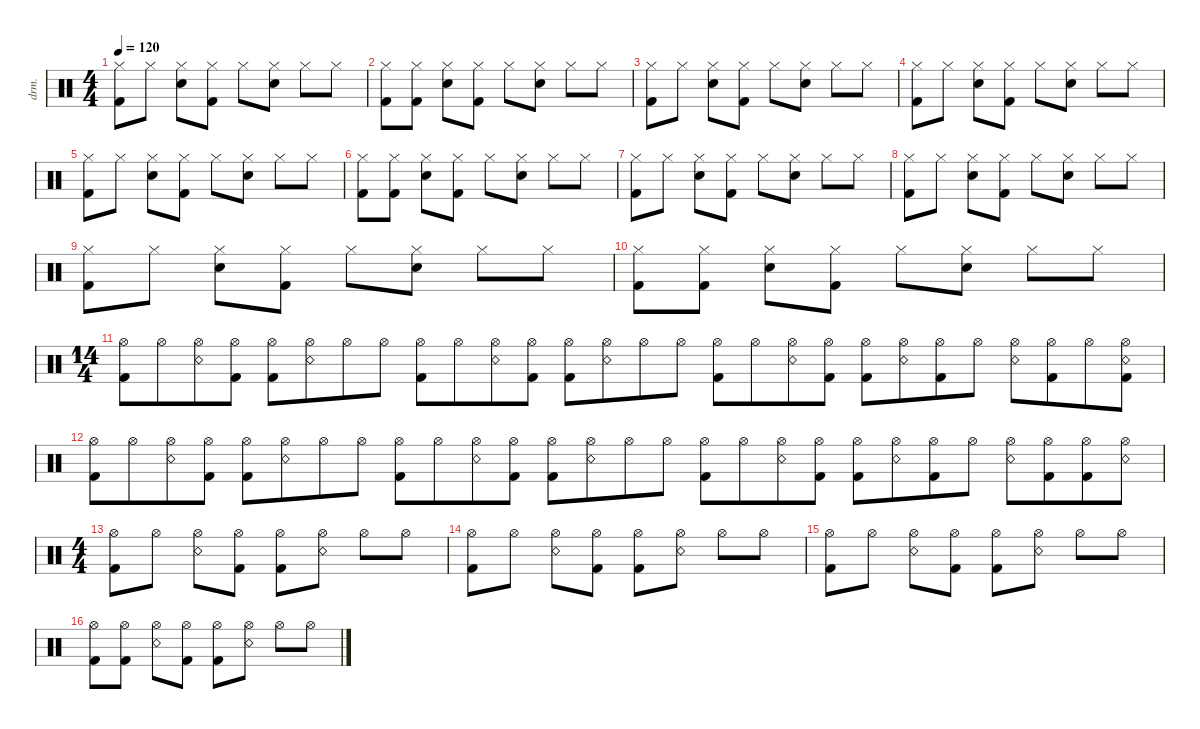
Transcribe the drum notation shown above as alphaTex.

\defaultSystemsLayout 4
\hideDynamics
\bracketExtendMode nobrackets
\otherSystemsTrackNameOrientation horizontal
\track ("Drumkit" "drm.") {instrument percussion}
\staff {score}
\articulation defaults
\ts (4 4)
\tempo 120
\clef neutral
\ks c
("Hi-Hat (closed)" "Kick (hit) 2").8{dy mf beam Down} "Hi-Hat (closed)".8{beam Down} ("Hi-Hat (closed)" "Snare (hit) 2").8{beam Down} ("Hi-Hat (closed)" "Kick (hit) 2").8{beam Down} "Hi-Hat (closed)".8{beam Down} ("Hi-Hat (closed)" "Snare (hit) 2").8{beam Down} "Hi-Hat (closed)".8{beam Down} "Hi-Hat (closed)".8{beam Down} |
("Hi-Hat (closed)" "Kick (hit) 2").8{beam Down} ("Hi-Hat (closed)" "Kick (hit) 2").8{beam Down} ("Hi-Hat (closed)" "Snare (hit) 2").8{beam Down} ("Hi-Hat (closed)" "Kick (hit) 2").8{beam Down} "Hi-Hat (closed)".8{beam Down} ("Hi-Hat (closed)" "Snare (hit) 2").8{beam Down} "Hi-Hat (closed)".8{beam Down} "Hi-Hat (closed)".8{beam Down} |
("Hi-Hat (closed)" "Kick (hit) 2").8{beam Down} "Hi-Hat (closed)".8{beam Down} ("Hi-Hat (closed)" "Snare (hit) 2").8{beam Down} ("Hi-Hat (closed)" "Kick (hit) 2").8{beam Down} "Hi-Hat (closed)".8{beam Down} ("Hi-Hat (closed)" "Snare (hit) 2").8{beam Down} "Hi-Hat (closed)".8{beam Down} "Hi-Hat (closed)".8{beam Down} |
("Hi-Hat (closed)" "Kick (hit) 2").8{beam Down} "Hi-Hat (closed)".8{beam Down} ("Hi-Hat (closed)" "Snare (hit) 2").8{beam Down} ("Hi-Hat (closed)" "Kick (hit) 2").8{beam Down} "Hi-Hat (closed)".8{beam Down} ("Hi-Hat (closed)" "Snare (hit) 2").8{beam Down} "Hi-Hat (closed)".8{beam Down} "Hi-Hat (closed)".8{beam Down} |
("Hi-Hat (closed)" "Kick (hit) 2").8{beam Down} "Hi-Hat (closed)".8{beam Down} ("Hi-Hat (closed)" "Snare (hit) 2").8{beam Down} ("Hi-Hat (closed)" "Kick (hit) 2").8{beam Down} "Hi-Hat (closed)".8{beam Down} ("Hi-Hat (closed)" "Snare (hit) 2").8{beam Down} "Hi-Hat (closed)".8{beam Down} "Hi-Hat (closed)".8{beam Down} |
("Hi-Hat (closed)" "Kick (hit) 2").8{beam Down} ("Hi-Hat (closed)" "Kick (hit) 2").8{beam Down} ("Hi-Hat (closed)" "Snare (hit) 2").8{beam Down} ("Hi-Hat (closed)" "Kick (hit) 2").8{beam Down} "Hi-Hat (closed)".8{beam Down} ("Hi-Hat (closed)" "Snare (hit) 2").8{beam Down} "Hi-Hat (closed)".8{beam Down} "Hi-Hat (closed)".8{beam Down} |
("Hi-Hat (closed)" "Kick (hit) 2").8{beam Down} "Hi-Hat (closed)".8{beam Down} ("Hi-Hat (closed)" "Snare (hit) 2").8{beam Down} ("Hi-Hat (closed)" "Kick (hit) 2").8{beam Down} "Hi-Hat (closed)".8{beam Down} ("Hi-Hat (closed)" "Snare (hit) 2").8{beam Down} "Hi-Hat (closed)".8{beam Down} "Hi-Hat (closed)".8{beam Down} |
("Hi-Hat (closed)" "Kick (hit) 2").8{beam Down} "Hi-Hat (closed)".8{beam Down} ("Hi-Hat (closed)" "Snare (hit) 2").8{beam Down} ("Hi-Hat (closed)" "Kick (hit) 2").8{beam Down} "Hi-Hat (closed)".8{beam Down} ("Hi-Hat (closed)" "Snare (hit) 2").8{beam Down} "Hi-Hat (closed)".8{beam Down} "Hi-Hat (closed)".8{beam Down} |
("Hi-Hat (closed)" "Kick (hit) 2").8{beam Down} "Hi-Hat (closed)".8{beam Down} ("Hi-Hat (closed)" "Snare (hit) 2").8{beam Down} ("Hi-Hat (closed)" "Kick (hit) 2").8{beam Down} "Hi-Hat (closed)".8{beam Down} ("Hi-Hat (closed)" "Snare (hit) 2").8{beam Down} "Hi-Hat (closed)".8{beam Down} "Hi-Hat (closed)".8{beam Down} |
("Hi-Hat (closed)" "Kick (hit) 2").8{beam Down} ("Hi-Hat (closed)" "Kick (hit) 2").8{beam Down} ("Hi-Hat (closed)" "Snare (hit) 2").8{beam Down} ("Hi-Hat (closed)" "Kick (hit) 2").8{beam Down} "Hi-Hat (closed)".8{beam Down} ("Hi-Hat (closed)" "Snare (hit) 2").8{beam Down} "Hi-Hat (closed)".8{beam Down} "Hi-Hat (closed)".8{beam Down} |
\ts (14 4)
\beaming (8 4 4 4 4 4 4 4)
("Kick (hit) 2" "Hi-Hat (open)").8{beam Down} "Hi-Hat (open)".8{beam Down} ("Hi-Hat (open)" "Snare (rim shot)").8{beam Down} ("Hi-Hat (open)" "Kick (hit) 2").8{beam Down} ("Hi-Hat (open)" "Kick (hit) 2").8{beam Down} ("Hi-Hat (open)" "Snare (rim shot)").8{beam Down} "Hi-Hat (open)".8{beam Down} "Hi-Hat (open)".8{beam Down} ("Kick (hit) 2" "Hi-Hat (open)").8{beam Down} "Hi-Hat (open)".8{beam Down} ("Hi-Hat (open)" "Snare (rim shot)").8{beam Down} ("Hi-Hat (open)" "Kick (hit) 2").8{beam Down} ("Hi-Hat (open)" "Kick (hit) 2").8{beam Down} ("Hi-Hat (open)" "Snare (rim shot)").8{beam Down} "Hi-Hat (open)".8{beam Down} "Hi-Hat (open)".8{beam Down} ("Kick (hit) 2" "Hi-Hat (open)").8{beam Down} "Hi-Hat (open)".8{beam Down} ("Hi-Hat (open)" "Snare (rim shot)").8{beam Down} ("Hi-Hat (open)" "Kick (hit) 2").8{beam Down} ("Hi-Hat (open)" "Kick (hit) 2").8{beam Down} ("Hi-Hat (open)" "Snare (rim shot)").8{beam Down} ("Hi-Hat (open)" "Kick (hit) 2").8{beam Down} "Hi-Hat (open)".8{beam Down} ("Hi-Hat (open)" "Snare (rim shot)").8{beam Down} ("Hi-Hat (open)" "Kick (hit) 2").8{beam Down} "Hi-Hat (open)".8{beam Down} ("Hi-Hat (open)" "Kick (hit) 2" "Snare (rim shot)").8{beam Down} |
("Kick (hit) 2" "Hi-Hat (open)").8{beam Down} "Hi-Hat (open)".8{beam Down} ("Hi-Hat (open)" "Snare (rim shot)").8{beam Down} ("Hi-Hat (open)" "Kick (hit) 2").8{beam Down} ("Hi-Hat (open)" "Kick (hit) 2").8{beam Down} ("Hi-Hat (open)" "Snare (rim shot)").8{beam Down} "Hi-Hat (open)".8{beam Down} "Hi-Hat (open)".8{beam Down} ("Kick (hit) 2" "Hi-Hat (open)").8{beam Down} "Hi-Hat (open)".8{beam Down} ("Hi-Hat (open)" "Snare (rim shot)").8{beam Down} ("Hi-Hat (open)" "Kick (hit) 2").8{beam Down} ("Hi-Hat (open)" "Kick (hit) 2").8{beam Down} ("Hi-Hat (open)" "Snare (rim shot)").8{beam Down} "Hi-Hat (open)".8{beam Down} "Hi-Hat (open)".8{beam Down} ("Kick (hit) 2" "Hi-Hat (open)").8{beam Down} "Hi-Hat (open)".8{beam Down} ("Hi-Hat (open)" "Snare (rim shot)").8{beam Down} ("Hi-Hat (open)" "Kick (hit) 2").8{beam Down} ("Hi-Hat (open)" "Kick (hit) 2").8{beam Down} ("Hi-Hat (open)" "Snare (rim shot)").8{beam Down} ("Hi-Hat (open)" "Kick (hit) 2").8{beam Down} "Hi-Hat (open)".8{beam Down} ("Hi-Hat (open)" "Snare (rim shot)").8{beam Down} ("Hi-Hat (open)" "Kick (hit) 2").8{beam Down} ("Hi-Hat (open)" "Kick (hit) 2").8{beam Down} ("Hi-Hat (open)" "Snare (rim shot)").8{beam Down} |
\ts (4 4)
\beaming (8 2 2 2 2)
("Kick (hit) 2" "Hi-Hat (open)").8{beam Down} "Hi-Hat (open)".8{beam Down} ("Hi-Hat (open)" "Snare (rim shot)").8{beam Down} ("Hi-Hat (open)" "Kick (hit) 2").8{beam Down} ("Hi-Hat (open)" "Kick (hit) 2").8{beam Down} ("Hi-Hat (open)" "Snare (rim shot)").8{beam Down} "Hi-Hat (open)".8{beam Down} "Hi-Hat (open)".8{beam Down} |
("Kick (hit) 2" "Hi-Hat (open)").8{beam Down} "Hi-Hat (open)".8{beam Down} ("Hi-Hat (open)" "Snare (rim shot)").8{beam Down} ("Hi-Hat (open)" "Kick (hit) 2").8{beam Down} ("Hi-Hat (open)" "Kick (hit) 2").8{beam Down} ("Hi-Hat (open)" "Snare (rim shot)").8{beam Down} "Hi-Hat (open)".8{beam Down} "Hi-Hat (open)".8{beam Down} |
("Kick (hit) 2" "Hi-Hat (open)").8{beam Down} "Hi-Hat (open)".8{beam Down} ("Hi-Hat (open)" "Snare (rim shot)").8{beam Down} ("Hi-Hat (open)" "Kick (hit) 2").8{beam Down} ("Hi-Hat (open)" "Kick (hit) 2").8{beam Down} ("Hi-Hat (open)" "Snare (rim shot)").8{beam Down} "Hi-Hat (open)".8{beam Down} "Hi-Hat (open)".8{beam Down} |
("Kick (hit) 2" "Hi-Hat (open)").8{beam Down} ("Hi-Hat (open)" "Kick (hit) 2").8{beam Down} ("Hi-Hat (open)" "Snare (rim shot)").8{beam Down} ("Hi-Hat (open)" "Kick (hit) 2").8{beam Down} ("Hi-Hat (open)" "Kick (hit) 2").8{beam Down} ("Hi-Hat (open)" "Snare (rim shot)").8{beam Down} "Hi-Hat (open)".8{beam Down} "Hi-Hat (open)".8{beam Down}
